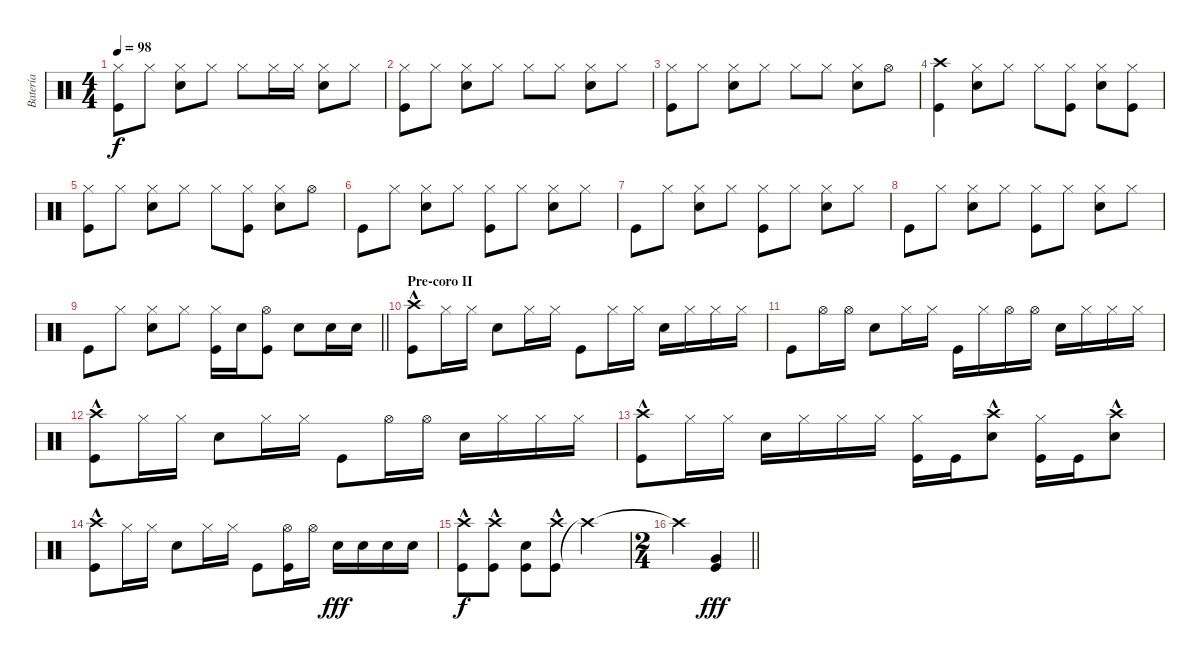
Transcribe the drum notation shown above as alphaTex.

\track ("Batería" "Batería") {instrument percussion}
\staff {score}
\articulation defaults
\ts (4 4)
\tempo 98
\clef neutral
\ks aminor
("Hi-Hat (closed)" "Kick (hit)").8{dy f} "Hi-Hat (closed)".8 ("Hi-Hat (closed)" "Snare (hit) 2").8 "Hi-Hat (closed)".8 "Hi-Hat (closed)".8 "Hi-Hat (closed)".16 "Hi-Hat (closed)".16 ("Hi-Hat (closed)" "Snare (hit) 2").8 "Hi-Hat (closed)".8 |
("Hi-Hat (closed)" "Kick (hit)").8 "Hi-Hat (closed)".8 ("Hi-Hat (closed)" "Snare (hit) 2").8 "Hi-Hat (closed)".8 "Hi-Hat (closed)".8 "Hi-Hat (closed)".8 ("Hi-Hat (closed)" "Snare (hit) 2").8 "Hi-Hat (closed)".8 |
("Hi-Hat (closed)" "Kick (hit)").8 "Hi-Hat (closed)".8 ("Hi-Hat (closed)" "Snare (hit) 2").8 "Hi-Hat (closed)".8 "Hi-Hat (closed)".8 "Hi-Hat (closed)".8 ("Hi-Hat (closed)" "Snare (hit) 2").8 "Hi-Hat (open)".8 |
("Kick (hit)" "Crash high (hit)").4 ("Hi-Hat (closed)" "Snare (hit) 2").8 "Hi-Hat (closed)".8 "Hi-Hat (closed)".8 ("Hi-Hat (closed)" "Kick (hit)").8 ("Hi-Hat (closed)" "Snare (hit) 2").8 ("Hi-Hat (closed)" "Kick (hit)").8 |
("Hi-Hat (closed)" "Kick (hit)").8 "Hi-Hat (closed)".8 ("Hi-Hat (closed)" "Snare (hit) 2").8 "Hi-Hat (closed)".8 "Hi-Hat (closed)".8 ("Hi-Hat (closed)" "Kick (hit)").8 ("Hi-Hat (closed)" "Snare (hit) 2").8 "Hi-Hat (open)".8 |
"Kick (hit)".8 "Hi-Hat (closed)".8 ("Hi-Hat (closed)" "Snare (hit) 2").8 "Hi-Hat (closed)".8 ("Hi-Hat (closed)" "Kick (hit)").8 "Hi-Hat (closed)".8 ("Hi-Hat (closed)" "Snare (hit) 2").8 "Hi-Hat (closed)".8 |
"Kick (hit)".8 "Hi-Hat (closed)".8 ("Hi-Hat (closed)" "Snare (hit) 2").8 "Hi-Hat (closed)".8 ("Hi-Hat (closed)" "Kick (hit)").8 "Hi-Hat (closed)".8 ("Hi-Hat (closed)" "Snare (hit) 2").8 "Hi-Hat (closed)".8 |
"Kick (hit)".8 "Hi-Hat (closed)".8 ("Hi-Hat (closed)" "Snare (hit) 2").8 "Hi-Hat (closed)".8 ("Hi-Hat (closed)" "Kick (hit)").8 "Hi-Hat (closed)".8 ("Hi-Hat (closed)" "Snare (hit) 2").8 "Hi-Hat (closed)".8 |
\barLineRight lightlight "Kick (hit)".8 "Hi-Hat (closed)".8
("Hi-Hat (closed)" "Snare (hit) 2").8 "Hi-Hat (closed)".8 ("Hi-Hat (closed)" "Kick (hit)").16 "Snare (hit) 2".16 ("Hi-Hat (open)" "Kick (hit)").8 "Snare (hit) 2".8 "Snare (hit) 2".16 "Snare (hit) 2".16 |
\section ("" "Pre-coro II")
("Crash high (hit)"{hac} "Kick (hit)").8 "Hi-Hat (closed)".16 "Hi-Hat (closed)".16 "Snare (hit) 2".8 "Hi-Hat (closed)".16 "Hi-Hat (closed)".16 "Kick (hit)".8 "Hi-Hat (closed)".16 "Hi-Hat (closed)".16 "Snare (hit) 2".16 "Hi-Hat (closed)".16 "Hi-Hat (closed)".16 "Hi-Hat (closed)".16 |
"Kick (hit)".8 "Hi-Hat (open)".16 "Hi-Hat (open)".16 "Snare (hit) 2".8 "Hi-Hat (closed)".16 "Hi-Hat (closed)".16 "Kick (hit)".16 "Hi-Hat (closed)".16 "Hi-Hat (open)".16 "Hi-Hat (open)".16 "Snare (hit) 2".16 "Hi-Hat (closed)".16 "Hi-Hat (closed)".16 "Hi-Hat (closed)".16 |
("Crash high (hit)"{hac} "Kick (hit)").8 "Hi-Hat (closed)".16 "Hi-Hat (closed)".16 "Snare (hit) 2".8 "Hi-Hat (closed)".16 "Hi-Hat (closed)".16 "Kick (hit)".8 "Hi-Hat (open)".16 "Hi-Hat (open)".16 "Snare (hit) 2".16 "Hi-Hat (closed)".16 "Hi-Hat (closed)".16 "Hi-Hat (closed)".16 |
("Kick (hit)" "Crash high (hit)"{hac}).8 "Hi-Hat (closed)".16 "Hi-Hat (closed)".16 "Snare (hit) 2".16 "Hi-Hat (closed)".16 "Hi-Hat (closed)".16 "Hi-Hat (closed)".16 ("Kick (hit)" "Hi-Hat (closed)").16 "Kick (hit)".16 ("Snare (hit) 2" "Crash high (hit)"{hac}).8 ("Kick (hit)" "Hi-Hat (closed)").16 "Kick (hit)".16 ("Snare (hit) 2" "Crash high (hit)"{hac}).8 |
("Kick (hit)" "Crash high (hit)"{hac}).8 "Hi-Hat (closed)".16 "Hi-Hat (closed)".16 "Snare (hit) 2".8 "Hi-Hat (closed)".16 "Hi-Hat (closed)".16 "Kick (hit)".8 ("Kick (hit)" "Hi-Hat (open)").16 "Hi-Hat (open)".16 "Snare (hit) 2".16{dy fff} "Snare (hit) 2".16 "Snare (hit) 2".16 "Snare (hit) 2".16 |
("Kick (hit)" "Crash high (hit)"{hac}).8{dy f} ("Kick (hit)" "Crash high (hit)"{hac}).8 ("Kick (hit)" "Snare (hit) 2").8 ("Kick (hit)" "Crash high (hit)"{hac}).8 "Crash high (hit)"{t}.2 |
\ts (2 4)
\barLineRight lightlight "Crash high (hit)"{t}.4
("Kick (hit)" "Very Low Tom (hit)").4{dy fff}
